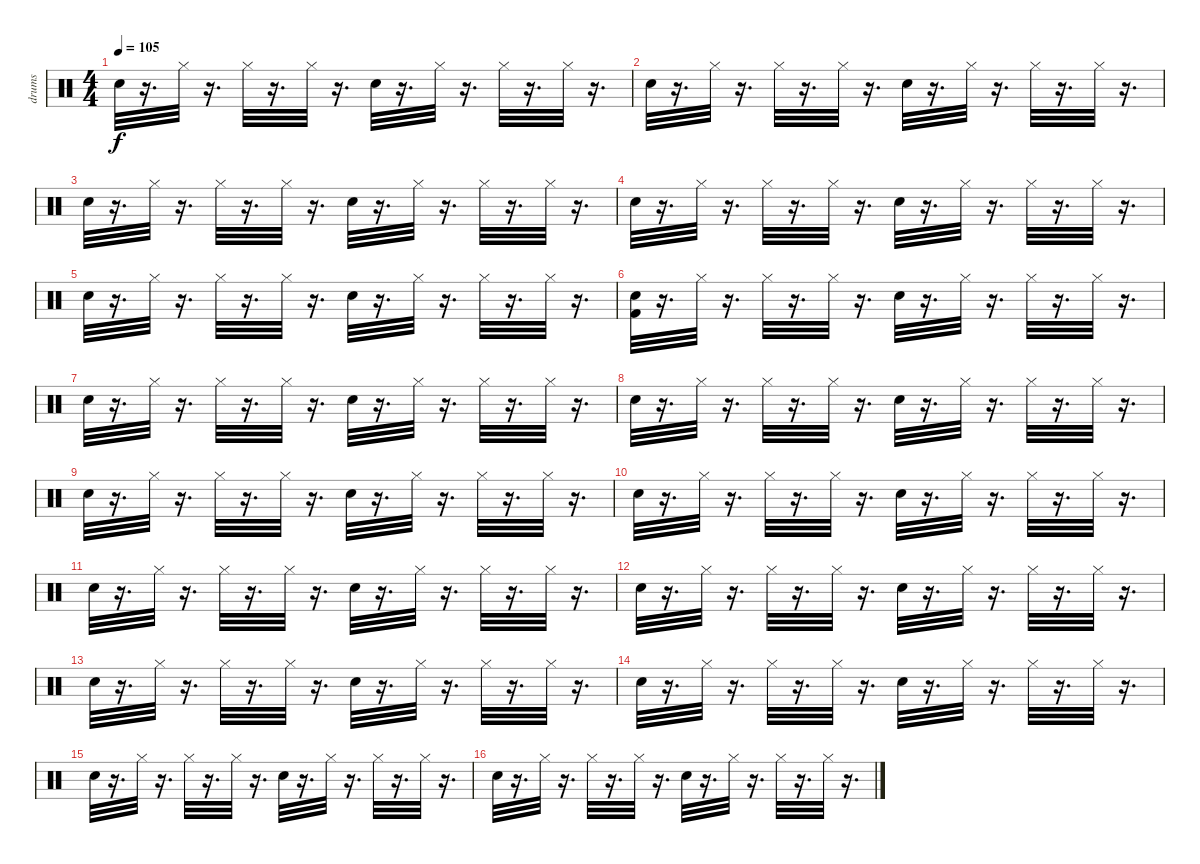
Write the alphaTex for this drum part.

\track ("drums" "drums") {instrument percussion}
\staff {score}
\articulation defaults
\ts (4 4)
\tempo 105
\clef neutral
\ks c "Snare (hit) 2".32{dy f}
r.16{d} "Hi-Hat (closed)".32 r.16{d} "Hi-Hat (closed)".32 r.16{d} "Hi-Hat (closed)".32 r.16{d} "Snare (hit) 2".32 r.16{d} "Hi-Hat (closed)".32 r.16{d} "Hi-Hat (closed)".32 r.16{d} "Hi-Hat (closed)".32 r.16{d} |
"Snare (hit) 2".32 r.16{d} "Hi-Hat (closed)".32 r.16{d} "Hi-Hat (closed)".32 r.16{d} "Hi-Hat (closed)".32 r.16{d} "Snare (hit) 2".32 r.16{d} "Hi-Hat (closed)".32 r.16{d} "Hi-Hat (closed)".32 r.16{d} "Hi-Hat (closed)".32 r.16{d} |
"Snare (hit) 2".32 r.16{d} "Hi-Hat (closed)".32 r.16{d} "Hi-Hat (closed)".32 r.16{d} "Hi-Hat (closed)".32 r.16{d} "Snare (hit) 2".32 r.16{d} "Hi-Hat (closed)".32 r.16{d} "Hi-Hat (closed)".32 r.16{d} "Hi-Hat (closed)".32 r.16{d} |
"Snare (hit) 2".32 r.16{d} "Hi-Hat (closed)".32 r.16{d} "Hi-Hat (closed)".32 r.16{d} "Hi-Hat (closed)".32 r.16{d} "Snare (hit) 2".32 r.16{d} "Hi-Hat (closed)".32 r.16{d} "Hi-Hat (closed)".32 r.16{d} "Hi-Hat (closed)".32 r.16{d} |
"Snare (hit) 2".32 r.16{d} "Hi-Hat (closed)".32 r.16{d} "Hi-Hat (closed)".32 r.16{d} "Hi-Hat (closed)".32 r.16{d} "Snare (hit) 2".32 r.16{d} "Hi-Hat (closed)".32 r.16{d} "Hi-Hat (closed)".32 r.16{d} "Hi-Hat (closed)".32 r.16{d} |
("Snare (hit) 2" "Kick (hit) 2").32 r.16{d} "Hi-Hat (closed)".32 r.16{d} "Hi-Hat (closed)".32 r.16{d} "Hi-Hat (closed)".32 r.16{d} "Snare (hit) 2".32 r.16{d} "Hi-Hat (closed)".32 r.16{d} "Hi-Hat (closed)".32 r.16{d} "Hi-Hat (closed)".32 r.16{d} |
"Snare (hit) 2".32 r.16{d} "Hi-Hat (closed)".32 r.16{d} "Hi-Hat (closed)".32 r.16{d} "Hi-Hat (closed)".32 r.16{d} "Snare (hit) 2".32 r.16{d} "Hi-Hat (closed)".32 r.16{d} "Hi-Hat (closed)".32 r.16{d} "Hi-Hat (closed)".32 r.16{d} |
"Snare (hit) 2".32 r.16{d} "Hi-Hat (closed)".32 r.16{d} "Hi-Hat (closed)".32 r.16{d} "Hi-Hat (closed)".32 r.16{d} "Snare (hit) 2".32 r.16{d} "Hi-Hat (closed)".32 r.16{d} "Hi-Hat (closed)".32 r.16{d} "Hi-Hat (closed)".32 r.16{d} |
"Snare (hit) 2".32 r.16{d} "Hi-Hat (closed)".32 r.16{d} "Hi-Hat (closed)".32 r.16{d} "Hi-Hat (closed)".32 r.16{d} "Snare (hit) 2".32 r.16{d} "Hi-Hat (closed)".32 r.16{d} "Hi-Hat (closed)".32 r.16{d} "Hi-Hat (closed)".32 r.16{d} |
"Snare (hit) 2".32 r.16{d} "Hi-Hat (closed)".32 r.16{d} "Hi-Hat (closed)".32 r.16{d} "Hi-Hat (closed)".32 r.16{d} "Snare (hit) 2".32 r.16{d} "Hi-Hat (closed)".32 r.16{d} "Hi-Hat (closed)".32 r.16{d} "Hi-Hat (closed)".32 r.16{d} |
"Snare (hit) 2".32 r.16{d} "Hi-Hat (closed)".32 r.16{d} "Hi-Hat (closed)".32 r.16{d} "Hi-Hat (closed)".32 r.16{d} "Snare (hit) 2".32 r.16{d} "Hi-Hat (closed)".32 r.16{d} "Hi-Hat (closed)".32 r.16{d} "Hi-Hat (closed)".32 r.16{d} |
"Snare (hit) 2".32 r.16{d} "Hi-Hat (closed)".32 r.16{d} "Hi-Hat (closed)".32 r.16{d} "Hi-Hat (closed)".32 r.16{d} "Snare (hit) 2".32 r.16{d} "Hi-Hat (closed)".32 r.16{d} "Hi-Hat (closed)".32 r.16{d} "Hi-Hat (closed)".32 r.16{d} |
"Snare (hit) 2".32 r.16{d} "Hi-Hat (closed)".32 r.16{d} "Hi-Hat (closed)".32 r.16{d} "Hi-Hat (closed)".32 r.16{d} "Snare (hit) 2".32 r.16{d} "Hi-Hat (closed)".32 r.16{d} "Hi-Hat (closed)".32 r.16{d} "Hi-Hat (closed)".32 r.16{d} |
"Snare (hit) 2".32 r.16{d} "Hi-Hat (closed)".32 r.16{d} "Hi-Hat (closed)".32 r.16{d} "Hi-Hat (closed)".32 r.16{d} "Snare (hit) 2".32 r.16{d} "Hi-Hat (closed)".32 r.16{d} "Hi-Hat (closed)".32 r.16{d} "Hi-Hat (closed)".32 r.16{d} |
"Snare (hit) 2".32 r.16{d} "Hi-Hat (closed)".32 r.16{d} "Hi-Hat (closed)".32 r.16{d} "Hi-Hat (closed)".32 r.16{d} "Snare (hit) 2".32 r.16{d} "Hi-Hat (closed)".32 r.16{d} "Hi-Hat (closed)".32 r.16{d} "Hi-Hat (closed)".32 r.16{d} |
"Snare (hit) 2".32 r.16{d} "Hi-Hat (closed)".32 r.16{d} "Hi-Hat (closed)".32 r.16{d} "Hi-Hat (closed)".32 r.16{d} "Snare (hit) 2".32 r.16{d} "Hi-Hat (closed)".32 r.16{d} "Hi-Hat (closed)".32 r.16{d} "Hi-Hat (closed)".32 r.16{d}
